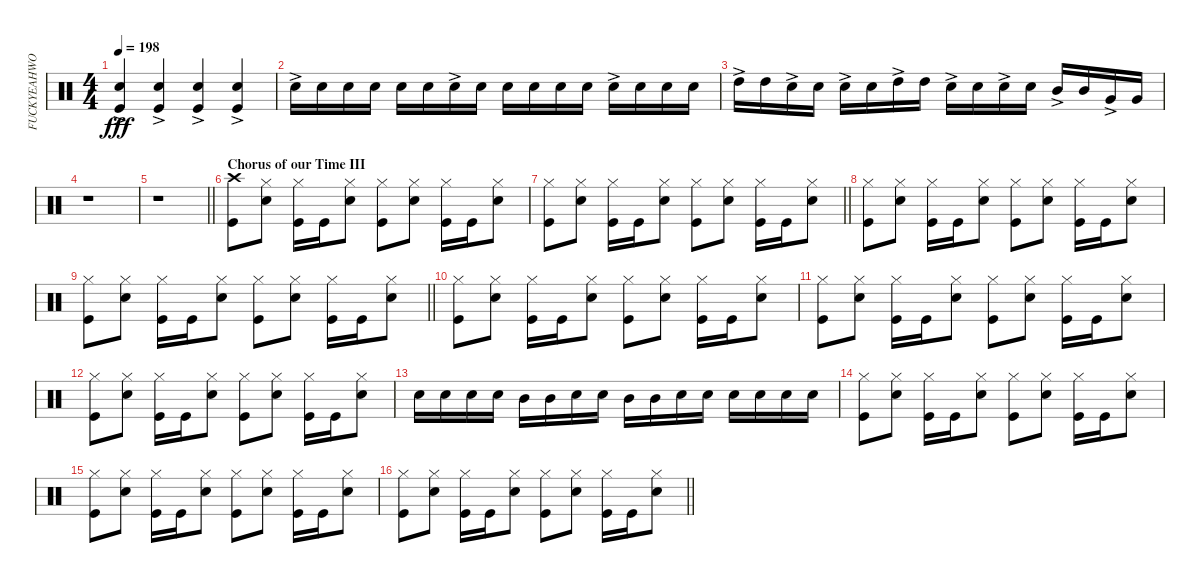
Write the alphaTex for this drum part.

\track ("FUCKYEAHWOOTDAVEMACKINTOSH!(Percussion)" "FUCKYEAHWO") {instrument percussion}
\staff {score}
\articulation defaults
\ts (4 4)
\tempo 198
\clef neutral
\ks c
("Kick (hit)" "Snare (hit) 2"{ac}).4{dy fff} ("Kick (hit)" "Snare (hit) 2"{ac}).4 ("Kick (hit)" "Snare (hit) 2"{ac}).4 ("Kick (hit)" "Snare (hit) 2"{ac}).4 |
"Snare (hit) 2"{ac}.16 "Snare (hit) 2".16 "Snare (hit) 2".16 "Snare (hit) 2".16 "Snare (hit) 2".16 "Snare (hit) 2".16 "Snare (hit) 2"{ac}.16 "Snare (hit) 2".16 "Snare (hit) 2".16 "Snare (hit) 2".16 "Snare (hit) 2".16 "Snare (hit) 2".16 "Snare (hit) 2"{ac}.16 "Snare (hit) 2".16 "Snare (hit) 2".16 "Snare (hit) 2".16 |
"High Tom (hit)"{ac}.16 "High Tom (hit)".16 "Snare (hit) 2"{ac}.16 "Snare (hit) 2".16 "Snare (hit) 2"{ac}.16 "Snare (hit) 2".16 "High Tom (hit)"{ac}.16 "High Tom (hit)".16 "Snare (hit) 2"{ac}.16 "Snare (hit) 2".16 "Snare (hit) 2"{ac}.16 "Snare (hit) 2".16 "Mid Tom (hit)"{ac}.16 "Mid Tom (hit)".16 "Very Low Tom (hit)"{ac}.16 "Very Low Tom (hit)".16 |
r.1 |
\barLineRight lightlight
r.1 |
\section ("" "Chorus of our Time III")
("Kick (hit)" "Crash high (hit)").8 ("Snare (hit) 2" "Hi-Hat (closed)").8 ("Kick (hit)" "Hi-Hat (closed)").16 "Kick (hit)".16 ("Hi-Hat (closed)" "Snare (hit) 2").8 ("Kick (hit)" "Hi-Hat (closed)").8 ("Snare (hit) 2" "Hi-Hat (closed)").8 ("Kick (hit)" "Hi-Hat (closed)").16 "Kick (hit)".16 ("Snare (hit) 2" "Hi-Hat (closed)").8 |
\barLineRight lightlight
("Kick (hit)" "Hi-Hat (closed)").8 ("Snare (hit) 2" "Hi-Hat (closed)").8 ("Kick (hit)" "Hi-Hat (closed)").16 "Kick (hit)".16 ("Hi-Hat (closed)" "Snare (hit) 2").8 ("Kick (hit)" "Hi-Hat (closed)").8 ("Snare (hit) 2" "Hi-Hat (closed)").8 ("Kick (hit)" "Hi-Hat (closed)").16 "Kick (hit)".16 ("Snare (hit) 2" "Hi-Hat (closed)").8 |
("Kick (hit)" "Hi-Hat (closed)").8 ("Snare (hit) 2" "Hi-Hat (closed)").8 ("Kick (hit)" "Hi-Hat (closed)").16 "Kick (hit)".16 ("Hi-Hat (closed)" "Snare (hit) 2").8 ("Kick (hit)" "Hi-Hat (closed)").8 ("Snare (hit) 2" "Hi-Hat (closed)").8 ("Kick (hit)" "Hi-Hat (closed)").16 "Kick (hit)".16 ("Snare (hit) 2" "Hi-Hat (closed)").8 |
\barLineRight lightlight
("Kick (hit)" "Hi-Hat (closed)").8 ("Snare (hit) 2" "Hi-Hat (closed)").8 ("Kick (hit)" "Hi-Hat (closed)").16 "Kick (hit)".16 ("Hi-Hat (closed)" "Snare (hit) 2").8 ("Kick (hit)" "Hi-Hat (closed)").8 ("Snare (hit) 2" "Hi-Hat (closed)").8 ("Kick (hit)" "Hi-Hat (closed)").16 "Kick (hit)".16 ("Snare (hit) 2" "Hi-Hat (closed)").8 |
("Kick (hit)" "Hi-Hat (closed)").8 ("Snare (hit) 2" "Hi-Hat (closed)").8 ("Kick (hit)" "Hi-Hat (closed)").16 "Kick (hit)".16 ("Hi-Hat (closed)" "Snare (hit) 2").8 ("Kick (hit)" "Hi-Hat (closed)").8 ("Snare (hit) 2" "Hi-Hat (closed)").8 ("Kick (hit)" "Hi-Hat (closed)").16 "Kick (hit)".16 ("Snare (hit) 2" "Hi-Hat (closed)").8 |
("Kick (hit)" "Hi-Hat (closed)").8 ("Snare (hit) 2" "Hi-Hat (closed)").8 ("Kick (hit)" "Hi-Hat (closed)").16 "Kick (hit)".16 ("Hi-Hat (closed)" "Snare (hit) 2").8 ("Kick (hit)" "Hi-Hat (closed)").8 ("Snare (hit) 2" "Hi-Hat (closed)").8 ("Kick (hit)" "Hi-Hat (closed)").16 "Kick (hit)".16 ("Snare (hit) 2" "Hi-Hat (closed)").8 |
("Kick (hit)" "Hi-Hat (closed)").8 ("Snare (hit) 2" "Hi-Hat (closed)").8 ("Kick (hit)" "Hi-Hat (closed)").16 "Kick (hit)".16 ("Hi-Hat (closed)" "Snare (hit) 2").8 ("Kick (hit)" "Hi-Hat (closed)").8 ("Snare (hit) 2" "Hi-Hat (closed)").8 ("Kick (hit)" "Hi-Hat (closed)").16 "Kick (hit)".16 ("Snare (hit) 2" "Hi-Hat (closed)").8 |
"Snare (hit) 2".16 "Snare (hit) 2".16 "Snare (hit) 2".16 "Snare (hit) 2".16 "Mid Tom (hit)".16 "Mid Tom (hit)".16 "Snare (hit) 2".16 "Snare (hit) 2".16 "Mid Tom (hit)".16 "Mid Tom (hit)".16 "Snare (hit) 2".16 "Snare (hit) 2".16 "Snare (hit) 2".16 "Snare (hit) 2".16 "Snare (hit) 2".16 "Snare (hit) 2".16 |
("Kick (hit)" "Hi-Hat (closed)").8 ("Snare (hit) 2" "Hi-Hat (closed)").8 ("Kick (hit)" "Hi-Hat (closed)").16 "Kick (hit)".16 ("Hi-Hat (closed)" "Snare (hit) 2").8 ("Kick (hit)" "Hi-Hat (closed)").8 ("Snare (hit) 2" "Hi-Hat (closed)").8 ("Kick (hit)" "Hi-Hat (closed)").16 "Kick (hit)".16 ("Snare (hit) 2" "Hi-Hat (closed)").8 |
("Kick (hit)" "Hi-Hat (closed)").8 ("Snare (hit) 2" "Hi-Hat (closed)").8 ("Kick (hit)" "Hi-Hat (closed)").16 "Kick (hit)".16 ("Hi-Hat (closed)" "Snare (hit) 2").8 ("Kick (hit)" "Hi-Hat (closed)").8 ("Snare (hit) 2" "Hi-Hat (closed)").8 ("Kick (hit)" "Hi-Hat (closed)").16 "Kick (hit)".16 ("Snare (hit) 2" "Hi-Hat (closed)").8 |
\barLineRight lightlight
("Kick (hit)" "Hi-Hat (closed)").8 ("Snare (hit) 2" "Hi-Hat (closed)").8 ("Kick (hit)" "Hi-Hat (closed)").16 "Kick (hit)".16 ("Hi-Hat (closed)" "Snare (hit) 2").8 ("Kick (hit)" "Hi-Hat (closed)").8 ("Snare (hit) 2" "Hi-Hat (closed)").8 ("Kick (hit)" "Hi-Hat (closed)").16 "Kick (hit)".16 ("Snare (hit) 2" "Hi-Hat (closed)").8
